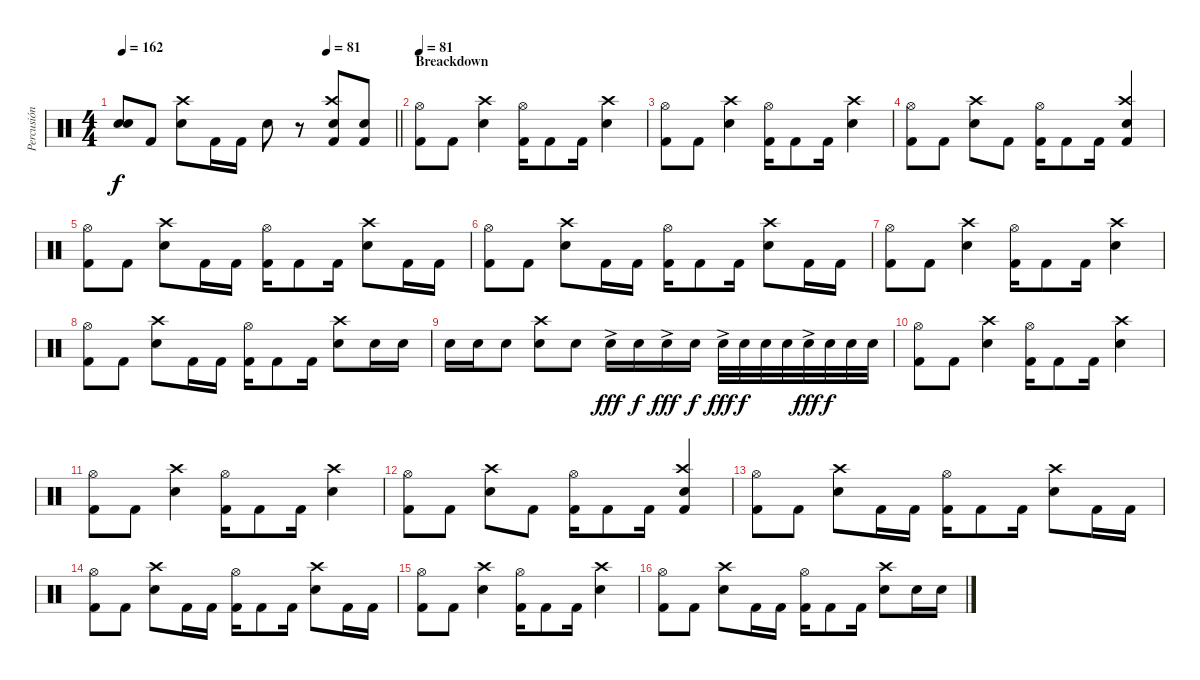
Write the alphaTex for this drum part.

\track ("Percusión" "Percusión") {instrument percussion}
\staff {score}
\articulation defaults
\ts (4 4)
\tempo 162
\tempo (81 0.75)
\clef neutral
\barLineRight lightlight
\ks c
("Snare (hit)"{t} "Snare (hit)"{t}).8{dy f} "Kick (hit) 2".8 ("Crash high (hit)" "Electric Snare (hit)").8 "Kick (hit) 2".16 "Kick (hit) 2".16 "Electric Snare (hit)".8 r.8 ("Crash high (hit)" "Electric Snare (hit)" "Kick (hit) 2").8 ("Electric Snare (hit)" "Kick (hit) 2").8 |
\section ("" "Breackdown")
\tempo 81
("Hi-Hat (open)" "Kick (hit) 2").8 "Kick (hit) 2".8 ("Crash high (hit)" "Electric Snare (hit)").4 ("Hi-Hat (open)" "Kick (hit) 2").16 "Kick (hit) 2".8 "Kick (hit) 2".16 ("Crash high (hit)" "Electric Snare (hit)").4 |
("Hi-Hat (open)" "Kick (hit) 2").8 "Kick (hit) 2".8 ("Crash high (hit)" "Electric Snare (hit)").4 ("Hi-Hat (open)" "Kick (hit) 2").16 "Kick (hit) 2".8 "Kick (hit) 2".16 ("Crash high (hit)" "Electric Snare (hit)").4 |
("Hi-Hat (open)" "Kick (hit) 2").8 "Kick (hit) 2".8 ("Crash high (hit)" "Electric Snare (hit)").8 "Kick (hit) 2".8 ("Hi-Hat (open)" "Kick (hit) 2").16 "Kick (hit) 2".8 "Kick (hit) 2".16 ("Crash high (hit)" "Electric Snare (hit)" "Kick (hit) 2").4 |
("Hi-Hat (open)" "Kick (hit) 2").8 "Kick (hit) 2".8 ("Crash high (hit)" "Electric Snare (hit)").8 "Kick (hit) 2".16 "Kick (hit) 2".16 ("Hi-Hat (open)" "Kick (hit) 2").16 "Kick (hit) 2".8 "Kick (hit) 2".16 ("Crash high (hit)" "Electric Snare (hit)").8 "Kick (hit) 2".16 "Kick (hit) 2".16 |
("Hi-Hat (open)" "Kick (hit) 2").8 "Kick (hit) 2".8 ("Crash high (hit)" "Electric Snare (hit)").8 "Kick (hit) 2".16 "Kick (hit) 2".16 ("Hi-Hat (open)" "Kick (hit) 2").16 "Kick (hit) 2".8 "Kick (hit) 2".16 ("Crash high (hit)" "Electric Snare (hit)").8 "Kick (hit) 2".16 "Kick (hit) 2".16 |
("Hi-Hat (open)" "Kick (hit) 2").8 "Kick (hit) 2".8 ("Crash high (hit)" "Electric Snare (hit)").4 ("Hi-Hat (open)" "Kick (hit) 2").16 "Kick (hit) 2".8 "Kick (hit) 2".16 ("Crash high (hit)" "Electric Snare (hit)").4 |
("Hi-Hat (open)" "Kick (hit) 2").8 "Kick (hit) 2".8 ("Crash high (hit)" "Electric Snare (hit)").8 "Kick (hit) 2".16 "Kick (hit) 2".16 ("Hi-Hat (open)" "Kick (hit) 2").16 "Kick (hit) 2".8 "Kick (hit) 2".16 ("Crash high (hit)" "Electric Snare (hit)").8 "Electric Snare (hit)".16 "Electric Snare (hit)".16 |
"Electric Snare (hit)".16 "Electric Snare (hit)".16 "Electric Snare (hit)".8 ("Crash high (hit)" "Electric Snare (hit)").8 "Electric Snare (hit)".8 "Electric Snare (hit)"{ac}.16{dy fff} "Electric Snare (hit)".16{dy f} "Electric Snare (hit)"{ac}.16{dy fff} "Electric Snare (hit)".16{dy f} "Electric Snare (hit)"{ac}.32{dy fff} "Electric Snare (hit)".32{dy f} "Electric Snare (hit)".32 "Electric Snare (hit)".32 "Electric Snare (hit)"{ac}.32{dy fff} "Electric Snare (hit)".32{dy f} "Electric Snare (hit)".32 "Electric Snare (hit)".32 |
("Hi-Hat (open)" "Kick (hit) 2").8 "Kick (hit) 2".8 ("Crash high (hit)" "Electric Snare (hit)").4 ("Hi-Hat (open)" "Kick (hit) 2").16 "Kick (hit) 2".8 "Kick (hit) 2".16 ("Crash high (hit)" "Electric Snare (hit)").4 |
("Hi-Hat (open)" "Kick (hit) 2").8 "Kick (hit) 2".8 ("Crash high (hit)" "Electric Snare (hit)").4 ("Hi-Hat (open)" "Kick (hit) 2").16 "Kick (hit) 2".8 "Kick (hit) 2".16 ("Crash high (hit)" "Electric Snare (hit)").4 |
("Hi-Hat (open)" "Kick (hit) 2").8 "Kick (hit) 2".8 ("Crash high (hit)" "Electric Snare (hit)").8 "Kick (hit) 2".8 ("Hi-Hat (open)" "Kick (hit) 2").16 "Kick (hit) 2".8 "Kick (hit) 2".16 ("Crash high (hit)" "Electric Snare (hit)" "Kick (hit) 2").4 |
("Hi-Hat (open)" "Kick (hit) 2").8 "Kick (hit) 2".8 ("Crash high (hit)" "Electric Snare (hit)").8 "Kick (hit) 2".16 "Kick (hit) 2".16 ("Hi-Hat (open)" "Kick (hit) 2").16 "Kick (hit) 2".8 "Kick (hit) 2".16 ("Crash high (hit)" "Electric Snare (hit)").8 "Kick (hit) 2".16 "Kick (hit) 2".16 |
("Hi-Hat (open)" "Kick (hit) 2").8 "Kick (hit) 2".8 ("Crash high (hit)" "Electric Snare (hit)").8 "Kick (hit) 2".16 "Kick (hit) 2".16 ("Hi-Hat (open)" "Kick (hit) 2").16 "Kick (hit) 2".8 "Kick (hit) 2".16 ("Crash high (hit)" "Electric Snare (hit)").8 "Kick (hit) 2".16 "Kick (hit) 2".16 |
("Hi-Hat (open)" "Kick (hit) 2").8 "Kick (hit) 2".8 ("Crash high (hit)" "Electric Snare (hit)").4 ("Hi-Hat (open)" "Kick (hit) 2").16 "Kick (hit) 2".8 "Kick (hit) 2".16 ("Crash high (hit)" "Electric Snare (hit)").4 |
("Hi-Hat (open)" "Kick (hit) 2").8 "Kick (hit) 2".8 ("Crash high (hit)" "Electric Snare (hit)").8 "Kick (hit) 2".16 "Kick (hit) 2".16 ("Hi-Hat (open)" "Kick (hit) 2").16 "Kick (hit) 2".8 "Kick (hit) 2".16 ("Crash high (hit)" "Electric Snare (hit)").8 "Electric Snare (hit)".16 "Electric Snare (hit)".16
